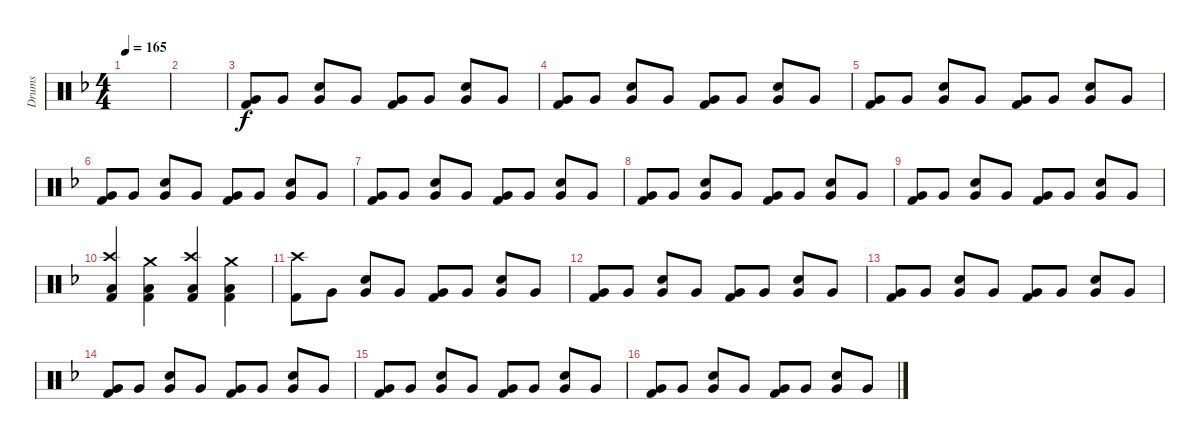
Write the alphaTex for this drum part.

\track ("Drums" "Drums") {instrument percussion}
\staff {score}
\articulation defaults
\ts (4 4)
\tempo 165
\clef neutral
\ks f
|
|
("Very Low Tom (hit)" "Kick (hit) 2").8 "Very Low Tom (hit)".8 ("Very Low Tom (hit)" "Electric Snare (hit)").8 "Very Low Tom (hit)".8 ("Very Low Tom (hit)" "Kick (hit) 2").8 "Very Low Tom (hit)".8 ("Very Low Tom (hit)" "Electric Snare (hit)").8 "Very Low Tom (hit)".8 |
("Very Low Tom (hit)" "Kick (hit) 2").8 "Very Low Tom (hit)".8 ("Very Low Tom (hit)" "Electric Snare (hit)").8 "Very Low Tom (hit)".8 ("Very Low Tom (hit)" "Kick (hit) 2").8 "Very Low Tom (hit)".8 ("Very Low Tom (hit)" "Electric Snare (hit)").8 "Very Low Tom (hit)".8 |
("Very Low Tom (hit)" "Kick (hit) 2").8 "Very Low Tom (hit)".8 ("Very Low Tom (hit)" "Electric Snare (hit)").8 "Very Low Tom (hit)".8 ("Very Low Tom (hit)" "Kick (hit) 2").8 "Very Low Tom (hit)".8 ("Very Low Tom (hit)" "Electric Snare (hit)").8 "Very Low Tom (hit)".8 |
("Very Low Tom (hit)" "Kick (hit) 2").8 "Very Low Tom (hit)".8 ("Very Low Tom (hit)" "Electric Snare (hit)").8 "Very Low Tom (hit)".8 ("Very Low Tom (hit)" "Kick (hit) 2").8 "Very Low Tom (hit)".8 ("Very Low Tom (hit)" "Electric Snare (hit)").8 "Very Low Tom (hit)".8 |
("Very Low Tom (hit)" "Kick (hit) 2").8 "Very Low Tom (hit)".8 ("Very Low Tom (hit)" "Electric Snare (hit)").8 "Very Low Tom (hit)".8 ("Very Low Tom (hit)" "Kick (hit) 2").8 "Very Low Tom (hit)".8 ("Very Low Tom (hit)" "Electric Snare (hit)").8 "Very Low Tom (hit)".8 |
("Very Low Tom (hit)" "Kick (hit) 2").8 "Very Low Tom (hit)".8 ("Very Low Tom (hit)" "Electric Snare (hit)").8 "Very Low Tom (hit)".8 ("Very Low Tom (hit)" "Kick (hit) 2").8 "Very Low Tom (hit)".8 ("Very Low Tom (hit)" "Electric Snare (hit)").8 "Very Low Tom (hit)".8 |
("Very Low Tom (hit)" "Kick (hit) 2").8 "Very Low Tom (hit)".8 ("Very Low Tom (hit)" "Electric Snare (hit)").8 "Very Low Tom (hit)".8 ("Very Low Tom (hit)" "Kick (hit) 2").8 "Very Low Tom (hit)".8 ("Very Low Tom (hit)" "Electric Snare (hit)").8 "Very Low Tom (hit)".8 |
("Crash high (hit)" "Low Tom (hit)" "Kick (hit) 2").4 ("Crash medium (hit)" "Low Tom (hit)" "Kick (hit) 2").4 ("Crash high (hit)" "Low Tom (hit)" "Kick (hit) 2").4 ("Crash medium (hit)" "Low Tom (hit)" "Kick (hit) 2").4 |
("Crash high (hit)" "Kick (hit) 2").8 "Very Low Tom (hit)".8 ("Very Low Tom (hit)" "Electric Snare (hit)").8 "Very Low Tom (hit)".8 ("Very Low Tom (hit)" "Kick (hit) 2").8 "Very Low Tom (hit)".8 ("Very Low Tom (hit)" "Electric Snare (hit)").8 "Very Low Tom (hit)".8 |
("Very Low Tom (hit)" "Kick (hit) 2").8 "Very Low Tom (hit)".8 ("Very Low Tom (hit)" "Electric Snare (hit)").8 "Very Low Tom (hit)".8 ("Very Low Tom (hit)" "Kick (hit) 2").8 "Very Low Tom (hit)".8 ("Very Low Tom (hit)" "Electric Snare (hit)").8 "Very Low Tom (hit)".8 |
("Very Low Tom (hit)" "Kick (hit) 2").8 "Very Low Tom (hit)".8 ("Very Low Tom (hit)" "Electric Snare (hit)").8 "Very Low Tom (hit)".8 ("Very Low Tom (hit)" "Kick (hit) 2").8 "Very Low Tom (hit)".8 ("Very Low Tom (hit)" "Electric Snare (hit)").8 "Very Low Tom (hit)".8 |
("Very Low Tom (hit)" "Kick (hit) 2").8 "Very Low Tom (hit)".8 ("Very Low Tom (hit)" "Electric Snare (hit)").8 "Very Low Tom (hit)".8 ("Very Low Tom (hit)" "Kick (hit) 2").8 "Very Low Tom (hit)".8 ("Very Low Tom (hit)" "Electric Snare (hit)").8 "Very Low Tom (hit)".8 |
("Very Low Tom (hit)" "Kick (hit) 2").8 "Very Low Tom (hit)".8 ("Very Low Tom (hit)" "Electric Snare (hit)").8 "Very Low Tom (hit)".8 ("Very Low Tom (hit)" "Kick (hit) 2").8 "Very Low Tom (hit)".8 ("Very Low Tom (hit)" "Electric Snare (hit)").8 "Very Low Tom (hit)".8 |
("Very Low Tom (hit)" "Kick (hit) 2").8 "Very Low Tom (hit)".8 ("Very Low Tom (hit)" "Electric Snare (hit)").8 "Very Low Tom (hit)".8 ("Very Low Tom (hit)" "Kick (hit) 2").8 "Very Low Tom (hit)".8 ("Very Low Tom (hit)" "Electric Snare (hit)").8 "Very Low Tom (hit)".8
